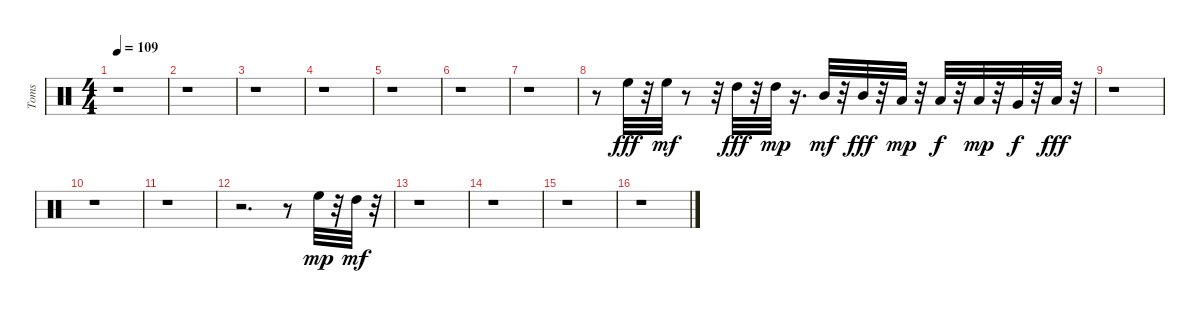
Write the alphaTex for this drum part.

\track ("Toms" "Toms") {instrument percussion}
\staff {score}
\articulation defaults
\ts (4 4)
\tempo 109
\clef neutral
\ks c
r.1{dy f} |
r.1 |
r.1 |
r.1 |
r.1 |
r.1 |
r.1 |
r.8 "High Floor Tom (hit)".32{dy fff} r.32 "High Floor Tom (hit)".32{dy mf} r.8 r.32 "High Tom (hit)".32{dy fff} r.32 "High Tom (hit)".32{dy mp} r.16{d} "Mid Tom (hit)".32{dy mf} r.32 "Mid Tom (hit)".32{dy fff} r.32 "Low Tom (hit)".32{dy mp} r.32 "Low Tom (hit)".32{dy f} r.32 "Low Tom (hit)".32{dy mp} r.32 "Very Low Tom (hit)".32{dy f} r.32 "Low Floor Tom (hit)".32{dy fff} r.32 |
r.1 |
r.1 |
r.1 |
r.2{d} r.8 "High Floor Tom (hit)".32{dy mp} r.32 "High Tom (hit)".32{dy mf} r.32 |
r.1 |
r.1 |
r.1 |
r.1
